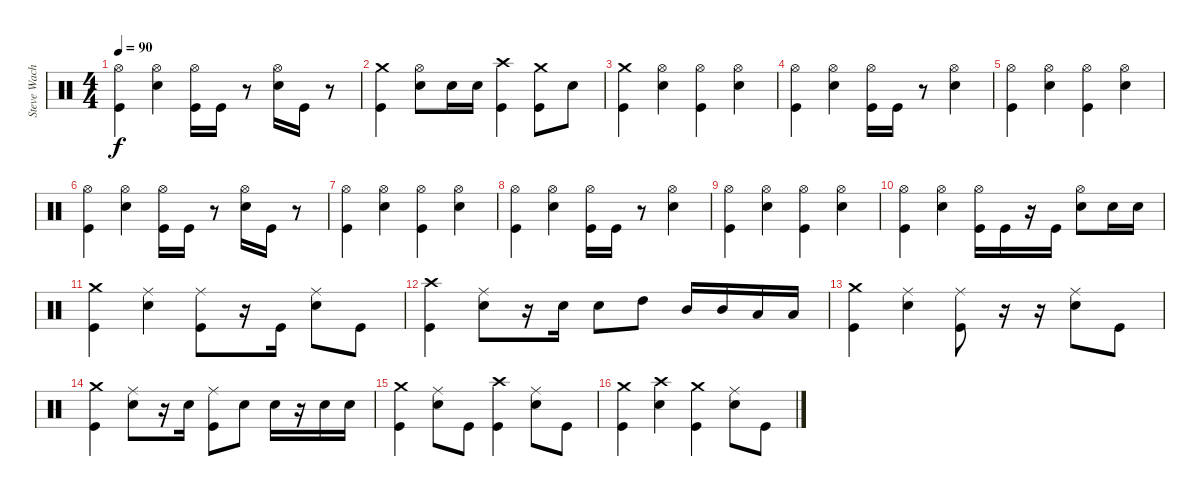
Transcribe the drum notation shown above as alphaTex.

\track ("Steve Wacholz" "Steve Wach") {instrument percussion}
\staff {score}
\articulation defaults
\ts (4 4)
\tempo 90
\clef neutral
\ks c
("Hi-Hat (open)" "Kick (hit)").4{dy f} ("Hi-Hat (open)" "Electric Snare (hit)").4 ("Hi-Hat (open)" "Kick (hit)").16 "Kick (hit)".16 r.8 ("Hi-Hat (open)" "Electric Snare (hit)").16 "Kick (hit)".16 r.8 |
("Crash medium (hit)" "Kick (hit)").4 ("Hi-Hat (open)" "Electric Snare (hit)").8 "Electric Snare (hit)".16 "Electric Snare (hit)".16 ("Crash high (hit)" "Kick (hit)").4 ("Crash medium (hit)" "Kick (hit)").8 "Electric Snare (hit)".8 |
("Crash medium (hit)" "Kick (hit)").4 ("Hi-Hat (open)" "Electric Snare (hit)").4 ("Hi-Hat (open)" "Kick (hit)").4 ("Hi-Hat (open)" "Electric Snare (hit)").4 |
("Hi-Hat (open)" "Kick (hit)").4 ("Hi-Hat (open)" "Electric Snare (hit)").4 ("Hi-Hat (open)" "Kick (hit)").16 "Kick (hit)".16 r.8 ("Hi-Hat (open)" "Electric Snare (hit)").4 |
("Hi-Hat (open)" "Kick (hit)").4 ("Hi-Hat (open)" "Electric Snare (hit)").4 ("Hi-Hat (open)" "Kick (hit)").4 ("Hi-Hat (open)" "Electric Snare (hit)").4 |
("Hi-Hat (open)" "Kick (hit)").4 ("Hi-Hat (open)" "Electric Snare (hit)").4 ("Hi-Hat (open)" "Kick (hit)").16 "Kick (hit)".16 r.8 ("Hi-Hat (open)" "Electric Snare (hit)").16 "Kick (hit)".16 r.8 |
("Hi-Hat (open)" "Kick (hit)").4 ("Hi-Hat (open)" "Electric Snare (hit)").4 ("Hi-Hat (open)" "Kick (hit)").4 ("Hi-Hat (open)" "Electric Snare (hit)").4 |
("Hi-Hat (open)" "Kick (hit)").4 ("Hi-Hat (open)" "Electric Snare (hit)").4 ("Hi-Hat (open)" "Kick (hit)").16 "Kick (hit)".16 r.8 ("Hi-Hat (open)" "Electric Snare (hit)").4 |
("Hi-Hat (open)" "Kick (hit)").4 ("Hi-Hat (open)" "Electric Snare (hit)").4 ("Hi-Hat (open)" "Kick (hit)").4 ("Hi-Hat (open)" "Electric Snare (hit)").4 |
("Hi-Hat (open)" "Kick (hit)").4 ("Hi-Hat (open)" "Electric Snare (hit)").4 ("Hi-Hat (open)" "Kick (hit)").16 "Kick (hit)".16 r.16 "Kick (hit)".16 ("Hi-Hat (open)" "Electric Snare (hit)").8 "Electric Snare (hit)".16 "Electric Snare (hit)".16 |
("Crash medium (hit)" "Kick (hit)").4 ("Ride (middle)" "Electric Snare (hit)").4 ("Ride (middle)" "Kick (hit)").8 r.16 "Kick (hit)".16 ("Ride (middle)" "Electric Snare (hit)").8 "Kick (hit)".8 |
("Crash high (hit)" "Kick (hit)").4 ("Ride (middle)" "Electric Snare (hit)").8 r.16 "Electric Snare (hit)".16 "Electric Snare (hit)".8 "High Tom (hit)".8 "Mid Tom (hit)".16 "Mid Tom (hit)".16 "Low Tom (hit)".16 "Low Tom (hit)".16 |
("Crash medium (hit)" "Kick (hit)").4 ("Ride (middle)" "Electric Snare (hit)").4 ("Ride (middle)" "Kick (hit)").8 r.16 r.16 ("Ride (middle)" "Electric Snare (hit)").8 "Kick (hit)".8 |
("Crash medium (hit)" "Kick (hit)").4 ("Ride (middle)" "Electric Snare (hit)").8 r.16 "Electric Snare (hit)".16 ("Ride (middle)" "Kick (hit)").8 "Electric Snare (hit)".8 "Electric Snare (hit)".16 r.16 "Electric Snare (hit)".16 "Electric Snare (hit)".16 |
("Crash medium (hit)" "Kick (hit)").4 ("Ride (middle)" "Electric Snare (hit)").8 "Kick (hit)".8 ("Crash high (hit)" "Kick (hit)").4 ("Ride (middle)" "Electric Snare (hit)").8 "Kick (hit)".8 |
("Crash medium (hit)" "Kick (hit)").4 ("Crash high (hit)" "Electric Snare (hit)").4 ("Crash medium (hit)" "Kick (hit)").4 ("Ride (middle)" "Electric Snare (hit)").8 "Kick (hit)".8
